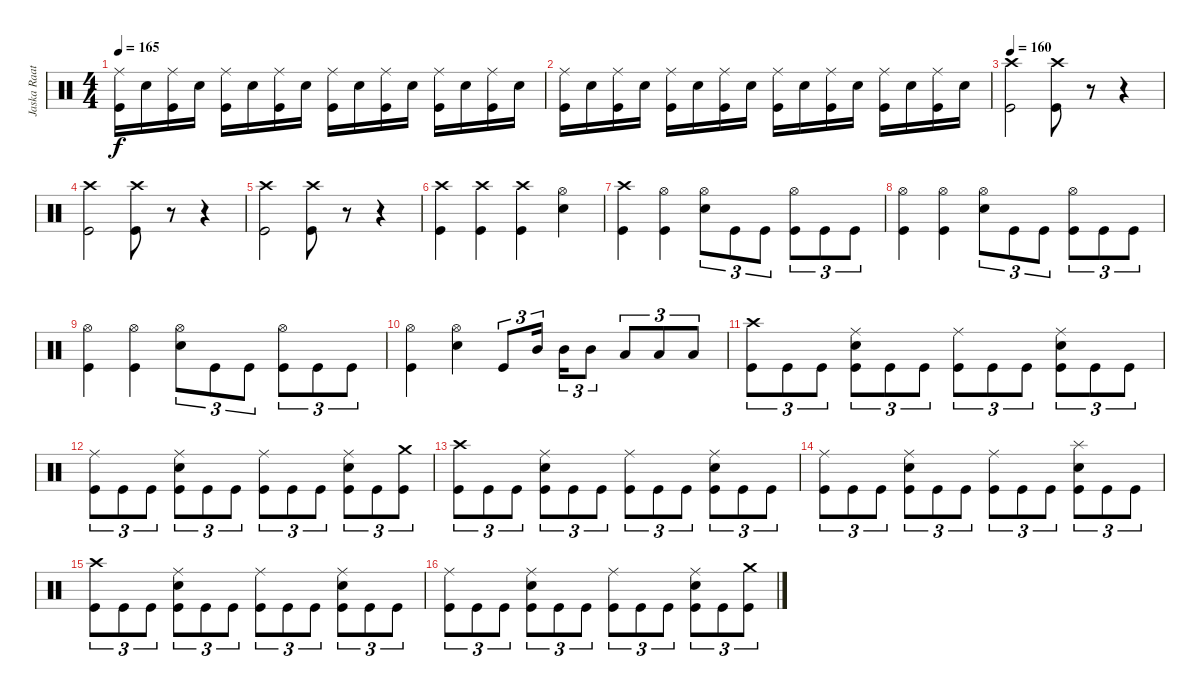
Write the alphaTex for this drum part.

\track ("Jaska Raatikainen" "Jaska Raat") {instrument percussion}
\staff {score}
\articulation defaults
\ts (4 4)
\tempo 165
\clef neutral
\ks c
("Ride (middle)" "Kick (hit)").16{dy f} "Electric Snare (hit)".16 ("Ride (middle)" "Kick (hit)").16 "Electric Snare (hit)".16 ("Ride (middle)" "Kick (hit)").16 "Electric Snare (hit)".16 ("Ride (middle)" "Kick (hit)").16 "Electric Snare (hit)".16 ("Ride (middle)" "Kick (hit)").16 "Electric Snare (hit)".16 ("Ride (middle)" "Kick (hit)").16 "Electric Snare (hit)".16 ("Ride (middle)" "Kick (hit)").16 "Electric Snare (hit)".16 ("Ride (middle)" "Kick (hit)").16 "Electric Snare (hit)".16 |
("Ride (middle)" "Kick (hit)").16 "Electric Snare (hit)".16 ("Ride (middle)" "Kick (hit)").16 "Electric Snare (hit)".16 ("Ride (middle)" "Kick (hit)").16 "Electric Snare (hit)".16 ("Ride (middle)" "Kick (hit)").16 "Electric Snare (hit)".16 ("Ride (middle)" "Kick (hit)").16 "Electric Snare (hit)".16 ("Ride (middle)" "Kick (hit)").16 "Electric Snare (hit)".16 ("Ride (middle)" "Kick (hit)").16 "Electric Snare (hit)".16 ("Ride (middle)" "Kick (hit)").16 "Electric Snare (hit)".16 |
\tempo 160
("Crash high (hit)" "Kick (hit)").2 ("Crash high (hit)" "Kick (hit)").8 r.8 r.4 |
("Crash high (hit)" "Kick (hit)").2 ("Crash high (hit)" "Kick (hit)").8 r.8 r.4 |
("Crash high (hit)" "Kick (hit)").2 ("Crash high (hit)" "Kick (hit)").8 r.8 r.4 |
("Crash high (hit)" "Kick (hit)").4 ("Crash high (hit)" "Kick (hit)").4 ("Crash high (hit)" "Kick (hit)").4 ("Hi-Hat (open)" "Electric Snare (hit)").4 |
("Crash high (hit)" "Kick (hit)").4 ("Hi-Hat (open)" "Kick (hit)").4 ("Hi-Hat (open)" "Electric Snare (hit)").8{tu (3 2)} "Kick (hit)".8{tu (3 2)} "Kick (hit)".8{tu (3 2)} ("Hi-Hat (open)" "Kick (hit)").8{tu (3 2)} "Kick (hit)".8{tu (3 2)} "Kick (hit)".8{tu (3 2)} |
("Hi-Hat (open)" "Kick (hit)").4 ("Hi-Hat (open)" "Kick (hit)").4 ("Hi-Hat (open)" "Electric Snare (hit)").8{tu (3 2)} "Kick (hit)".8{tu (3 2)} "Kick (hit)".8{tu (3 2)} ("Hi-Hat (open)" "Kick (hit)").8{tu (3 2)} "Kick (hit)".8{tu (3 2)} "Kick (hit)".8{tu (3 2)} |
("Hi-Hat (open)" "Kick (hit)").4 ("Hi-Hat (open)" "Kick (hit)").4 ("Hi-Hat (open)" "Electric Snare (hit)").8{tu (3 2)} "Kick (hit)".8{tu (3 2)} "Kick (hit)".8{tu (3 2)} ("Hi-Hat (open)" "Kick (hit)").8{tu (3 2)} "Kick (hit)".8{tu (3 2)} "Kick (hit)".8{tu (3 2)} |
("Hi-Hat (open)" "Kick (hit)").4 ("Hi-Hat (open)" "Electric Snare (hit)").4 "Kick (hit)".8{tu (3 2)} "Mid Tom (hit)".16{tu (3 2)} "Mid Tom (hit)".16{tu (3 2)} "Mid Tom (hit)".8{tu (3 2)} "Low Tom (hit)".8{tu (3 2)} "Low Tom (hit)".8{tu (3 2)} "Low Tom (hit)".8{tu (3 2)} |
("Crash high (hit)" "Kick (hit)").8{tu (3 2)} "Kick (hit)".8{tu (3 2)} "Kick (hit)".8{tu (3 2)} ("Ride (middle)" "Electric Snare (hit)" "Kick (hit)").8{tu (3 2)} "Kick (hit)".8{tu (3 2)} "Kick (hit)".8{tu (3 2)} ("Ride (middle)" "Kick (hit)").8{tu (3 2)} "Kick (hit)".8{tu (3 2)} "Kick (hit)".8{tu (3 2)} ("Ride (middle)" "Electric Snare (hit)" "Kick (hit)").8{tu (3 2)} "Kick (hit)".8{tu (3 2)} "Kick (hit)".8{tu (3 2)} |
("Ride (middle)" "Kick (hit)").8{tu (3 2)} "Kick (hit)".8{tu (3 2)} "Kick (hit)".8{tu (3 2)} ("Ride (middle)" "Electric Snare (hit)" "Kick (hit)").8{tu (3 2)} "Kick (hit)".8{tu (3 2)} "Kick (hit)".8{tu (3 2)} ("Ride (middle)" "Kick (hit)").8{tu (3 2)} "Kick (hit)".8{tu (3 2)} "Kick (hit)".8{tu (3 2)} ("Ride (middle)" "Electric Snare (hit)" "Kick (hit)").8{tu (3 2)} "Kick (hit)".8{tu (3 2)} ("Crash medium (hit)" "Kick (hit)").8{tu (3 2)} |
("Crash high (hit)" "Kick (hit)").8{tu (3 2)} "Kick (hit)".8{tu (3 2)} "Kick (hit)".8{tu (3 2)} ("Ride (middle)" "Electric Snare (hit)" "Kick (hit)").8{tu (3 2)} "Kick (hit)".8{tu (3 2)} "Kick (hit)".8{tu (3 2)} ("Ride (middle)" "Kick (hit)").8{tu (3 2)} "Kick (hit)".8{tu (3 2)} "Kick (hit)".8{tu (3 2)} ("Ride (middle)" "Electric Snare (hit)" "Kick (hit)").8{tu (3 2)} "Kick (hit)".8{tu (3 2)} "Kick (hit)".8{tu (3 2)} |
("Ride (middle)" "Kick (hit)").8{tu (3 2)} "Kick (hit)".8{tu (3 2)} "Kick (hit)".8{tu (3 2)} ("Ride (middle)" "Electric Snare (hit)" "Kick (hit)").8{tu (3 2)} "Kick (hit)".8{tu (3 2)} "Kick (hit)".8{tu (3 2)} ("Ride (middle)" "Kick (hit)").8{tu (3 2)} "Kick (hit)".8{tu (3 2)} "Kick (hit)".8{tu (3 2)} ("Splash (hit)" "Electric Snare (hit)" "Kick (hit)").8{tu (3 2)} "Kick (hit)".8{tu (3 2)} "Kick (hit)".8{tu (3 2)} |
("Crash high (hit)" "Kick (hit)").8{tu (3 2)} "Kick (hit)".8{tu (3 2)} "Kick (hit)".8{tu (3 2)} ("Ride (middle)" "Electric Snare (hit)" "Kick (hit)").8{tu (3 2)} "Kick (hit)".8{tu (3 2)} "Kick (hit)".8{tu (3 2)} ("Ride (middle)" "Kick (hit)").8{tu (3 2)} "Kick (hit)".8{tu (3 2)} "Kick (hit)".8{tu (3 2)} ("Ride (middle)" "Electric Snare (hit)" "Kick (hit)").8{tu (3 2)} "Kick (hit)".8{tu (3 2)} "Kick (hit)".8{tu (3 2)} |
("Ride (middle)" "Kick (hit)").8{tu (3 2)} "Kick (hit)".8{tu (3 2)} "Kick (hit)".8{tu (3 2)} ("Ride (middle)" "Electric Snare (hit)" "Kick (hit)").8{tu (3 2)} "Kick (hit)".8{tu (3 2)} "Kick (hit)".8{tu (3 2)} ("Ride (middle)" "Kick (hit)").8{tu (3 2)} "Kick (hit)".8{tu (3 2)} "Kick (hit)".8{tu (3 2)} ("Ride (middle)" "Electric Snare (hit)" "Kick (hit)").8{tu (3 2)} "Kick (hit)".8{tu (3 2)} ("Crash medium (hit)" "Kick (hit)").8{tu (3 2)}
